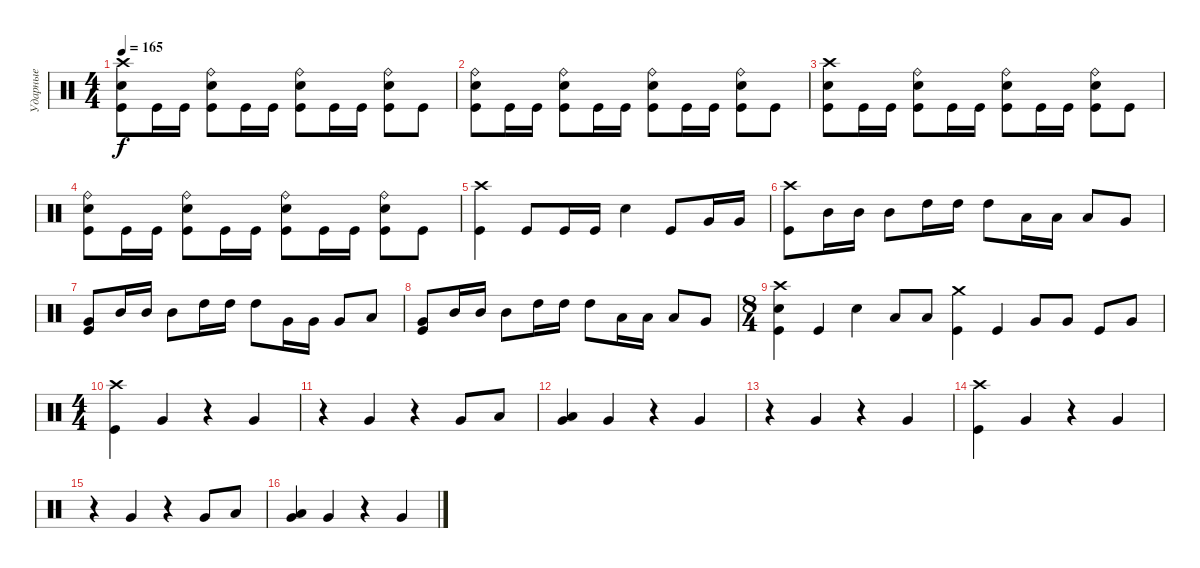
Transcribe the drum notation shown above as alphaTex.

\track ("Ударные" "Ударные") {instrument percussion}
\staff {score}
\articulation defaults
\ts (4 4)
\tempo 165
\clef neutral
\ks c
("Crash high (hit)" "Electric Snare (hit)" "Kick (hit)").8{dy f} "Kick (hit)".16 "Kick (hit)".16 ("Ride (bell)" "Electric Snare (hit)" "Kick (hit)").8 "Kick (hit)".16 "Kick (hit)".16 ("Ride (bell)" "Electric Snare (hit)" "Kick (hit)").8 "Kick (hit)".16 "Kick (hit)".16 ("Ride (bell)" "Electric Snare (hit)" "Kick (hit)").8 "Kick (hit)".8 |
("Ride (bell)" "Electric Snare (hit)" "Kick (hit)").8 "Kick (hit)".16 "Kick (hit)".16 ("Ride (bell)" "Electric Snare (hit)" "Kick (hit)").8 "Kick (hit)".16 "Kick (hit)".16 ("Ride (bell)" "Electric Snare (hit)" "Kick (hit)").8 "Kick (hit)".16 "Kick (hit)".16 ("Ride (bell)" "Electric Snare (hit)" "Kick (hit)").8 "Kick (hit)".8 |
("Crash high (hit)" "Electric Snare (hit)" "Kick (hit)").8 "Kick (hit)".16 "Kick (hit)".16 ("Ride (bell)" "Electric Snare (hit)" "Kick (hit)").8 "Kick (hit)".16 "Kick (hit)".16 ("Ride (bell)" "Electric Snare (hit)" "Kick (hit)").8 "Kick (hit)".16 "Kick (hit)".16 ("Ride (bell)" "Electric Snare (hit)" "Kick (hit)").8 "Kick (hit)".8 |
("Ride (bell)" "Electric Snare (hit)" "Kick (hit)").8 "Kick (hit)".16 "Kick (hit)".16 ("Ride (bell)" "Electric Snare (hit)" "Kick (hit)").8 "Kick (hit)".16 "Kick (hit)".16 ("Ride (bell)" "Electric Snare (hit)" "Kick (hit)").8 "Kick (hit)".16 "Kick (hit)".16 ("Ride (bell)" "Electric Snare (hit)" "Kick (hit)").8 "Kick (hit)".8 |
("Crash high (hit)" "Kick (hit)").4 "Kick (hit)".8 "Kick (hit)".16 "Kick (hit)".16 "Electric Snare (hit)".4 "Kick (hit)".8 "Very Low Tom (hit)".16 "Very Low Tom (hit)".16 |
("Crash high (hit)" "Kick (hit)").8 "Mid Tom (hit)".16 "Mid Tom (hit)".16 "Mid Tom (hit)".8 "High Tom (hit)".16 "High Tom (hit)".16 "High Tom (hit)".8 "Low Tom (hit)".16 "Low Tom (hit)".16 "Low Tom (hit)".8 "Very Low Tom (hit)".8 |
("Very Low Tom (hit)" "Kick (hit)").8 "Mid Tom (hit)".16 "Mid Tom (hit)".16 "Mid Tom (hit)".8 "High Tom (hit)".16 "High Tom (hit)".16 "High Tom (hit)".8 "Very Low Tom (hit)".16 "Very Low Tom (hit)".16 "Very Low Tom (hit)".8 "Low Tom (hit)".8 |
("Very Low Tom (hit)" "Kick (hit)").8 "Mid Tom (hit)".16 "Mid Tom (hit)".16 "Mid Tom (hit)".8 "High Tom (hit)".16 "High Tom (hit)".16 "High Tom (hit)".8 "Low Tom (hit)".16 "Low Tom (hit)".16 "Low Tom (hit)".8 "Very Low Tom (hit)".8 |
\ts (8 4)
("Crash high (hit)" "Electric Snare (hit)" "Kick (hit)").4 "Kick (hit)".4 "Electric Snare (hit)".4 "Low Tom (hit)".8 "Low Tom (hit)".8 ("Crash medium (hit)" "Kick (hit)").4 "Kick (hit)".4 "Very Low Tom (hit)".8 "Very Low Tom (hit)".8 "Kick (hit)".8 "Very Low Tom (hit)".8 |
\ts (4 4)
("Crash high (hit)" "Kick (hit)").4 "Very Low Tom (hit)".4 r.4 "Very Low Tom (hit)".4 |
r.4 "Very Low Tom (hit)".4 r.4 "Very Low Tom (hit)".8 "Low Tom (hit)".8 |
("Very Low Tom (hit)" "Low Tom (hit)").4 "Very Low Tom (hit)".4 r.4 "Very Low Tom (hit)".4 |
r.4 "Very Low Tom (hit)".4 r.4 "Very Low Tom (hit)".4 |
("Crash high (hit)" "Kick (hit)").4 "Very Low Tom (hit)".4 r.4 "Very Low Tom (hit)".4 |
r.4 "Very Low Tom (hit)".4 r.4 "Very Low Tom (hit)".8 "Low Tom (hit)".8 |
("Very Low Tom (hit)" "Low Tom (hit)").4 "Very Low Tom (hit)".4 r.4 "Very Low Tom (hit)".4
